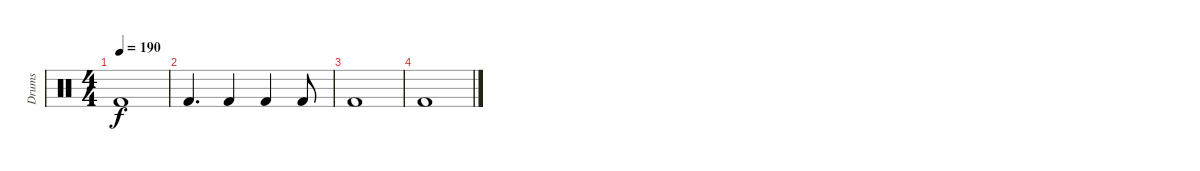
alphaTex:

\track ("Drums" "Drums") {instrument percussion}
\staff {score}
\articulation defaults
\ts (4 4)
\tempo 190
\clef neutral
\ks c "Kick (hit) 2"{t}.1{dy f}
|
"Kick (hit) 2".4{d} "Kick (hit) 2".4 "Kick (hit) 2".4 "Kick (hit) 2".8 |
"Kick (hit) 2".1 |
"Kick (hit) 2".1
